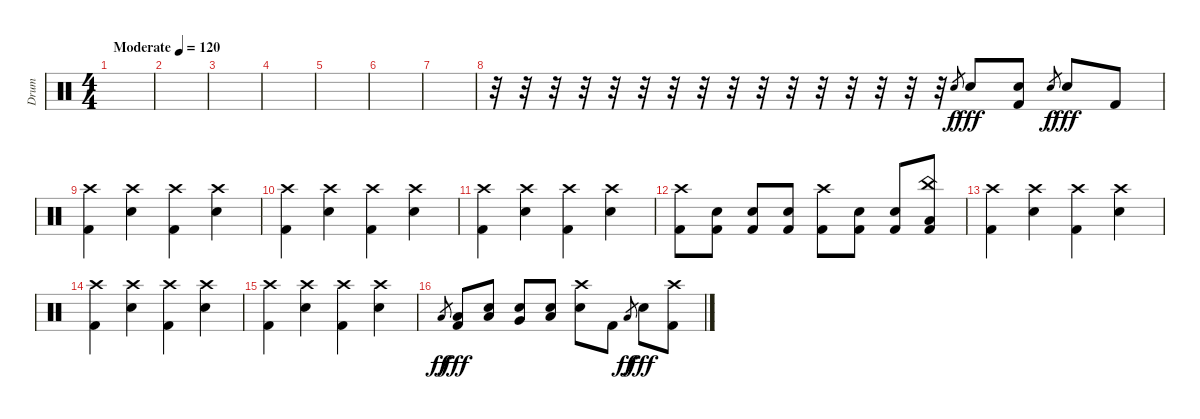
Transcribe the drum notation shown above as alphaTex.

\track ("Drum" "Drum") {instrument percussion}
\staff {score}
\articulation defaults
\ts (4 4)
\tempo (120 "Moderate")
\clef neutral
\ks c
|
|
|
|
|
|
|
r.32 r.32 r.32 r.32 r.32 r.32 r.32 r.32 r.32 r.32 r.32 r.32 r.32 r.32 r.32 r.32 "Snare (hit) 2".8{gr} "Snare (hit) 2".8{dy fff} ("Kick (hit) 2" "Snare (hit)").8 "Snare (hit) 2".8{gr dy f} "Snare (hit) 2".8{dy fff} "Kick (hit) 2".8 |
("Crash high (hit)" "Kick (hit) 2").4 ("Crash high (hit)" "Snare (hit) 2").4 ("Crash high (hit)" "Kick (hit) 2").4 ("Crash high (hit)" "Snare (hit) 2").4 |
("Crash high (hit)" "Kick (hit) 2").4 ("Crash high (hit)" "Snare (hit) 2").4 ("Crash high (hit)" "Kick (hit) 2").4 ("Crash high (hit)" "Snare (hit) 2").4 |
("Crash high (hit)" "Kick (hit) 2").4 ("Crash high (hit)" "Snare (hit) 2").4 ("Crash high (hit)" "Kick (hit) 2").4 ("Crash high (hit)" "Snare (hit) 2").4 |
("Crash high (hit)" "Kick (hit) 2").8 ("Snare (hit) 2" "Kick (hit) 2").8 ("Snare (hit) 2" "Kick (hit) 2").8 ("Snare (hit) 2" "Kick (hit) 2").8 ("Crash high (hit)" "Kick (hit) 2").8 ("Snare (hit) 2" "Kick (hit) 2").8 ("Snare (hit) 2" "Kick (hit) 2").8 ("China (hit)" "Low Floor Tom (hit)" "Kick (hit) 2").8 |
("Crash high (hit)" "Kick (hit) 2").4 ("Crash high (hit)" "Snare (hit) 2").4 ("Crash high (hit)" "Kick (hit) 2").4 ("Crash high (hit)" "Snare (hit) 2").4 |
("Crash high (hit)" "Kick (hit) 2").4 ("Crash high (hit)" "Snare (hit) 2").4 ("Crash high (hit)" "Kick (hit) 2").4 ("Crash high (hit)" "Snare (hit) 2").4 |
("Crash high (hit)" "Kick (hit) 2").4 ("Crash high (hit)" "Snare (hit) 2").4 ("Crash high (hit)" "Kick (hit) 2").4 ("Crash high (hit)" "Snare (hit) 2").4 |
"Low Floor Tom (hit)".8{gr dy ff} ("Low Floor Tom (hit)" "Kick (hit) 2").8{dy fff} ("Low Tom (hit)" "Snare (hit) 2").8 ("Very Low Tom (hit)" "Snare (hit) 2").8 ("Low Floor Tom (hit)" "Snare (hit) 2").8 ("Crash high (hit)" "Snare (hit) 2").8 "Kick (hit) 2".8 "Low Floor Tom (hit)".8{gr dy ff} "Snare (hit) 2".8{dy fff} ("Crash high (hit)" "Kick (hit) 2").8
